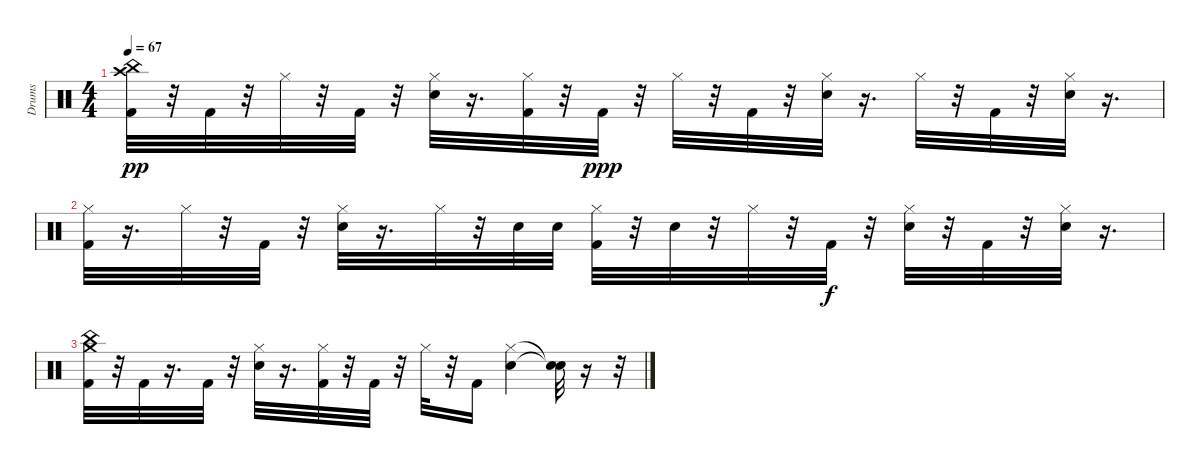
\track ("Drums" "Drums") {instrument percussion}
\staff {score}
\articulation defaults
\ts (4 4)
\tempo 67
\clef neutral
\ks c
("China (hit)" "Crash high (hit)" "Kick (hit) 2").32{dy pp} r.32 "Kick (hit) 2".32 r.32 "Hi-Hat (closed)".32 r.32 "Kick (hit) 2".32 r.32 ("Snare (hit) 2" "Hi-Hat (closed)").32 r.16{d} ("Kick (hit) 2" "Hi-Hat (closed)").32 r.32 "Kick (hit) 2".32{dy ppp} r.32 "Hi-Hat (closed)".32 r.32 "Kick (hit) 2".32 r.32 ("Snare (hit) 2" "Hi-Hat (closed)").32 r.16{d} "Hi-Hat (closed)".32 r.32 "Kick (hit) 2".32 r.32 ("Snare (hit) 2" "Hi-Hat (closed)").32 r.16{d} |
("Kick (hit) 2" "Hi-Hat (closed)").32 r.16{d} "Hi-Hat (closed)".32 r.32 "Kick (hit) 2".32 r.32 ("Snare (hit) 2" "Hi-Hat (closed)").32 r.16{d} "Hi-Hat (closed)".32 r.32 "Snare (hit) 2".32 "Snare (hit) 2".32 ("Kick (hit) 2" "Hi-Hat (closed)").32 r.32 "Snare (hit) 2".32 r.32 "Hi-Hat (closed)".32 r.32 "Kick (hit) 2".32{dy f} r.32 ("Snare (hit) 2" "Hi-Hat (closed)").32 r.32 "Kick (hit) 2".32 r.32 ("Snare (hit) 2" "Hi-Hat (closed)").32 r.16{d} |
("China (hit)" "Crash medium (hit)" "Kick (hit) 2").32 r.32 "Kick (hit) 2".32 r.16{d} "Kick (hit) 2".32 r.32 ("Snare (hit) 2" "Hi-Hat (closed)").32 r.16{d} ("Kick (hit) 2" "Hi-Hat (closed)").32 r.32 "Kick (hit) 2".32 r.32 "Hi-Hat (closed)".32 r.32 "Kick (hit) 2".16 ("Snare (hit) 2" "Hi-Hat (closed)").4 ("Snare (hit)"{t} "Snare (hit)"{t}).32 r.16 r.32
